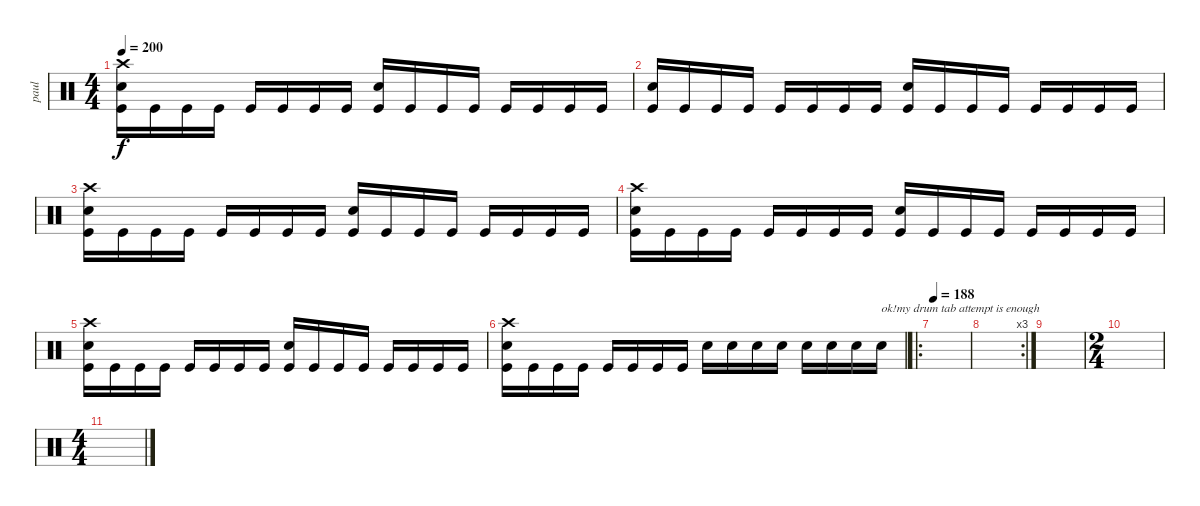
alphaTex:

\track ("paul" "paul") {instrument percussion}
\staff {score}
\articulation defaults
\ts (4 4)
\tempo 200
\clef neutral
\ks c
("Snare (hit) 2" "Kick (hit)" "Crash high (hit)").16{dy f} "Kick (hit)".16 "Kick (hit)".16 "Kick (hit)".16 "Kick (hit)".16 "Kick (hit)".16 "Kick (hit)".16 "Kick (hit)".16 ("Snare (hit) 2" "Kick (hit)").16 "Kick (hit)".16 "Kick (hit)".16 "Kick (hit)".16 "Kick (hit)".16 "Kick (hit)".16 "Kick (hit)".16 "Kick (hit)".16 |
("Snare (hit) 2" "Kick (hit)").16 "Kick (hit)".16 "Kick (hit)".16 "Kick (hit)".16 "Kick (hit)".16 "Kick (hit)".16 "Kick (hit)".16 "Kick (hit)".16 ("Snare (hit) 2" "Kick (hit)").16 "Kick (hit)".16 "Kick (hit)".16 "Kick (hit)".16 "Kick (hit)".16 "Kick (hit)".16 "Kick (hit)".16 "Kick (hit)".16 |
("Snare (hit) 2" "Kick (hit)" "Crash high (hit)").16 "Kick (hit)".16 "Kick (hit)".16 "Kick (hit)".16 "Kick (hit)".16 "Kick (hit)".16 "Kick (hit)".16 "Kick (hit)".16 ("Snare (hit) 2" "Kick (hit)").16 "Kick (hit)".16 "Kick (hit)".16 "Kick (hit)".16 "Kick (hit)".16 "Kick (hit)".16 "Kick (hit)".16 "Kick (hit)".16 |
("Snare (hit) 2" "Kick (hit)" "Crash high (hit)").16 "Kick (hit)".16 "Kick (hit)".16 "Kick (hit)".16 "Kick (hit)".16 "Kick (hit)".16 "Kick (hit)".16 "Kick (hit)".16 ("Snare (hit) 2" "Kick (hit)").16 "Kick (hit)".16 "Kick (hit)".16 "Kick (hit)".16 "Kick (hit)".16 "Kick (hit)".16 "Kick (hit)".16 "Kick (hit)".16 |
("Snare (hit) 2" "Kick (hit)" "Crash high (hit)").16 "Kick (hit)".16 "Kick (hit)".16 "Kick (hit)".16 "Kick (hit)".16 "Kick (hit)".16 "Kick (hit)".16 "Kick (hit)".16 ("Snare (hit) 2" "Kick (hit)").16 "Kick (hit)".16 "Kick (hit)".16 "Kick (hit)".16 "Kick (hit)".16 "Kick (hit)".16 "Kick (hit)".16 "Kick (hit)".16 |
("Snare (hit) 2" "Kick (hit)" "Crash high (hit)").16 "Kick (hit)".16 "Kick (hit)".16 "Kick (hit)".16 "Kick (hit)".16 "Kick (hit)".16 "Kick (hit)".16 "Kick (hit)".16 "Snare (hit) 2".16 "Snare (hit) 2".16 "Snare (hit) 2".16 "Snare (hit) 2".16 "Snare (hit) 2".16 "Snare (hit) 2".16 "Snare (hit) 2".16 "Snare (hit) 2".16{txt "ok!my drum tab attempt is enough"} |
\ro
\tempo 188
|
\rc 3
|
|
\ts (2 4)
|
\ts (4 4)
